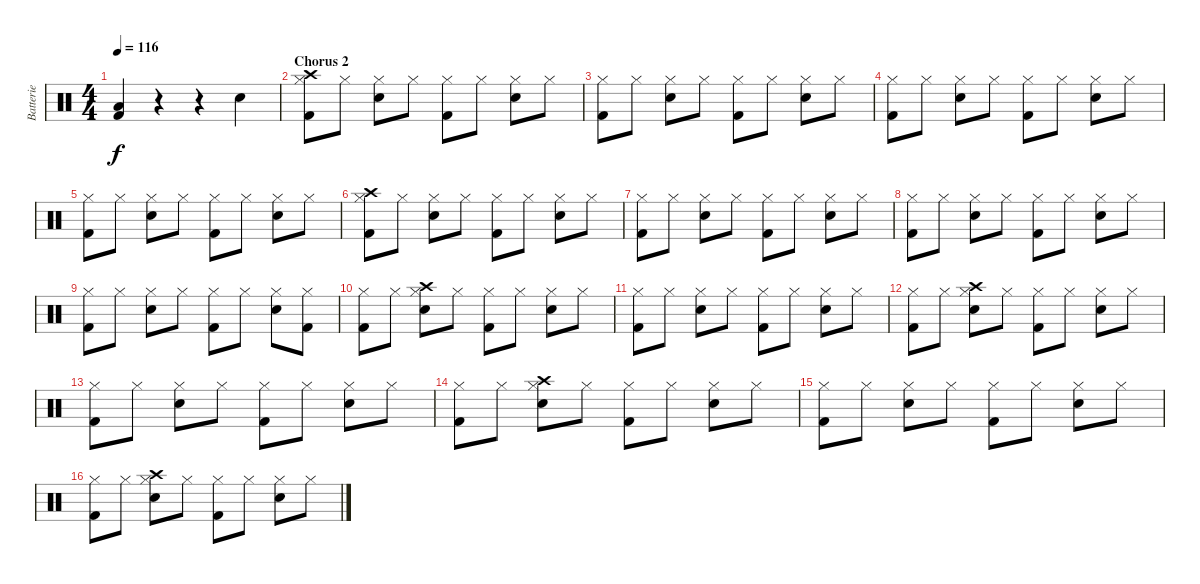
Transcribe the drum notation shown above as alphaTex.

\track ("Batterie" "Batterie") {instrument percussion}
\staff {score}
\articulation defaults
\ts (4 4)
\tempo 116
\clef neutral
\ks c
("Low Tom (hit)" "Kick (hit) 2").4{dy f} r.4 r.4 "Snare (hit) 2".4 |
\section ("" "Chorus 2")
("Hi-Hat (closed)" "Crash high (hit)" "Kick (hit) 2").8 "Hi-Hat (closed)".8 ("Hi-Hat (closed)" "Snare (hit) 2").8 "Hi-Hat (closed)".8 ("Hi-Hat (closed)" "Kick (hit) 2").8 "Hi-Hat (closed)".8 ("Hi-Hat (closed)" "Snare (hit) 2").8 "Hi-Hat (closed)".8 |
("Hi-Hat (closed)" "Kick (hit) 2").8 "Hi-Hat (closed)".8 ("Hi-Hat (closed)" "Snare (hit) 2").8 "Hi-Hat (closed)".8 ("Hi-Hat (closed)" "Kick (hit) 2").8 "Hi-Hat (closed)".8 ("Hi-Hat (closed)" "Snare (hit) 2").8 "Hi-Hat (closed)".8 |
("Hi-Hat (closed)" "Kick (hit) 2").8 "Hi-Hat (closed)".8 ("Hi-Hat (closed)" "Snare (hit) 2").8 "Hi-Hat (closed)".8 ("Hi-Hat (closed)" "Kick (hit) 2").8 "Hi-Hat (closed)".8 ("Hi-Hat (closed)" "Snare (hit) 2").8 "Hi-Hat (closed)".8 |
("Hi-Hat (closed)" "Kick (hit) 2").8 "Hi-Hat (closed)".8 ("Hi-Hat (closed)" "Snare (hit) 2").8 "Hi-Hat (closed)".8 ("Hi-Hat (closed)" "Kick (hit) 2").8 "Hi-Hat (closed)".8 ("Hi-Hat (closed)" "Snare (hit) 2").8 "Hi-Hat (closed)".8 |
("Hi-Hat (closed)" "Crash high (hit)" "Kick (hit) 2").8 "Hi-Hat (closed)".8 ("Hi-Hat (closed)" "Snare (hit) 2").8 "Hi-Hat (closed)".8 ("Hi-Hat (closed)" "Kick (hit) 2").8 "Hi-Hat (closed)".8 ("Hi-Hat (closed)" "Snare (hit) 2").8 "Hi-Hat (closed)".8 |
("Hi-Hat (closed)" "Kick (hit) 2").8 "Hi-Hat (closed)".8 ("Hi-Hat (closed)" "Snare (hit) 2").8 "Hi-Hat (closed)".8 ("Hi-Hat (closed)" "Kick (hit) 2").8 "Hi-Hat (closed)".8 ("Hi-Hat (closed)" "Snare (hit) 2").8 "Hi-Hat (closed)".8 |
("Hi-Hat (closed)" "Kick (hit) 2").8 "Hi-Hat (closed)".8 ("Hi-Hat (closed)" "Snare (hit) 2").8 "Hi-Hat (closed)".8 ("Hi-Hat (closed)" "Kick (hit) 2").8 "Hi-Hat (closed)".8 ("Hi-Hat (closed)" "Snare (hit) 2").8 "Hi-Hat (closed)".8 |
("Hi-Hat (closed)" "Kick (hit) 2").8 "Hi-Hat (closed)".8 ("Hi-Hat (closed)" "Snare (hit) 2").8 "Hi-Hat (closed)".8 ("Hi-Hat (closed)" "Kick (hit) 2").8 "Hi-Hat (closed)".8 ("Hi-Hat (closed)" "Snare (hit) 2").8 ("Hi-Hat (closed)" "Kick (hit) 2").8 |
("Hi-Hat (closed)" "Kick (hit) 2").8 "Hi-Hat (closed)".8 ("Hi-Hat (closed)" "Crash high (hit)" "Snare (hit) 2").8 "Hi-Hat (closed)".8 ("Hi-Hat (closed)" "Kick (hit) 2").8 "Hi-Hat (closed)".8 ("Hi-Hat (closed)" "Snare (hit) 2").8 "Hi-Hat (closed)".8 |
("Hi-Hat (closed)" "Kick (hit) 2").8 "Hi-Hat (closed)".8 ("Hi-Hat (closed)" "Snare (hit) 2").8 "Hi-Hat (closed)".8 ("Hi-Hat (closed)" "Kick (hit) 2").8 "Hi-Hat (closed)".8 ("Hi-Hat (closed)" "Snare (hit) 2").8 "Hi-Hat (closed)".8 |
("Hi-Hat (closed)" "Kick (hit) 2").8 "Hi-Hat (closed)".8 ("Hi-Hat (closed)" "Crash high (hit)" "Snare (hit) 2").8 "Hi-Hat (closed)".8 ("Hi-Hat (closed)" "Kick (hit) 2").8 "Hi-Hat (closed)".8 ("Hi-Hat (closed)" "Snare (hit) 2").8 "Hi-Hat (closed)".8 |
("Hi-Hat (closed)" "Kick (hit) 2").8 "Hi-Hat (closed)".8 ("Hi-Hat (closed)" "Snare (hit) 2").8 "Hi-Hat (closed)".8 ("Hi-Hat (closed)" "Kick (hit) 2").8 "Hi-Hat (closed)".8 ("Hi-Hat (closed)" "Snare (hit) 2").8 "Hi-Hat (closed)".8 |
("Hi-Hat (closed)" "Kick (hit) 2").8 "Hi-Hat (closed)".8 ("Hi-Hat (closed)" "Crash high (hit)" "Snare (hit) 2").8 "Hi-Hat (closed)".8 ("Hi-Hat (closed)" "Kick (hit) 2").8 "Hi-Hat (closed)".8 ("Hi-Hat (closed)" "Snare (hit) 2").8 "Hi-Hat (closed)".8 |
("Hi-Hat (closed)" "Kick (hit) 2").8 "Hi-Hat (closed)".8 ("Hi-Hat (closed)" "Snare (hit) 2").8 "Hi-Hat (closed)".8 ("Hi-Hat (closed)" "Kick (hit) 2").8 "Hi-Hat (closed)".8 ("Hi-Hat (closed)" "Snare (hit) 2").8 "Hi-Hat (closed)".8 |
("Hi-Hat (closed)" "Kick (hit) 2").8 "Hi-Hat (closed)".8 ("Hi-Hat (closed)" "Crash high (hit)" "Snare (hit) 2").8 "Hi-Hat (closed)".8 ("Hi-Hat (closed)" "Kick (hit) 2").8 "Hi-Hat (closed)".8 ("Hi-Hat (closed)" "Snare (hit) 2").8 "Hi-Hat (closed)".8
